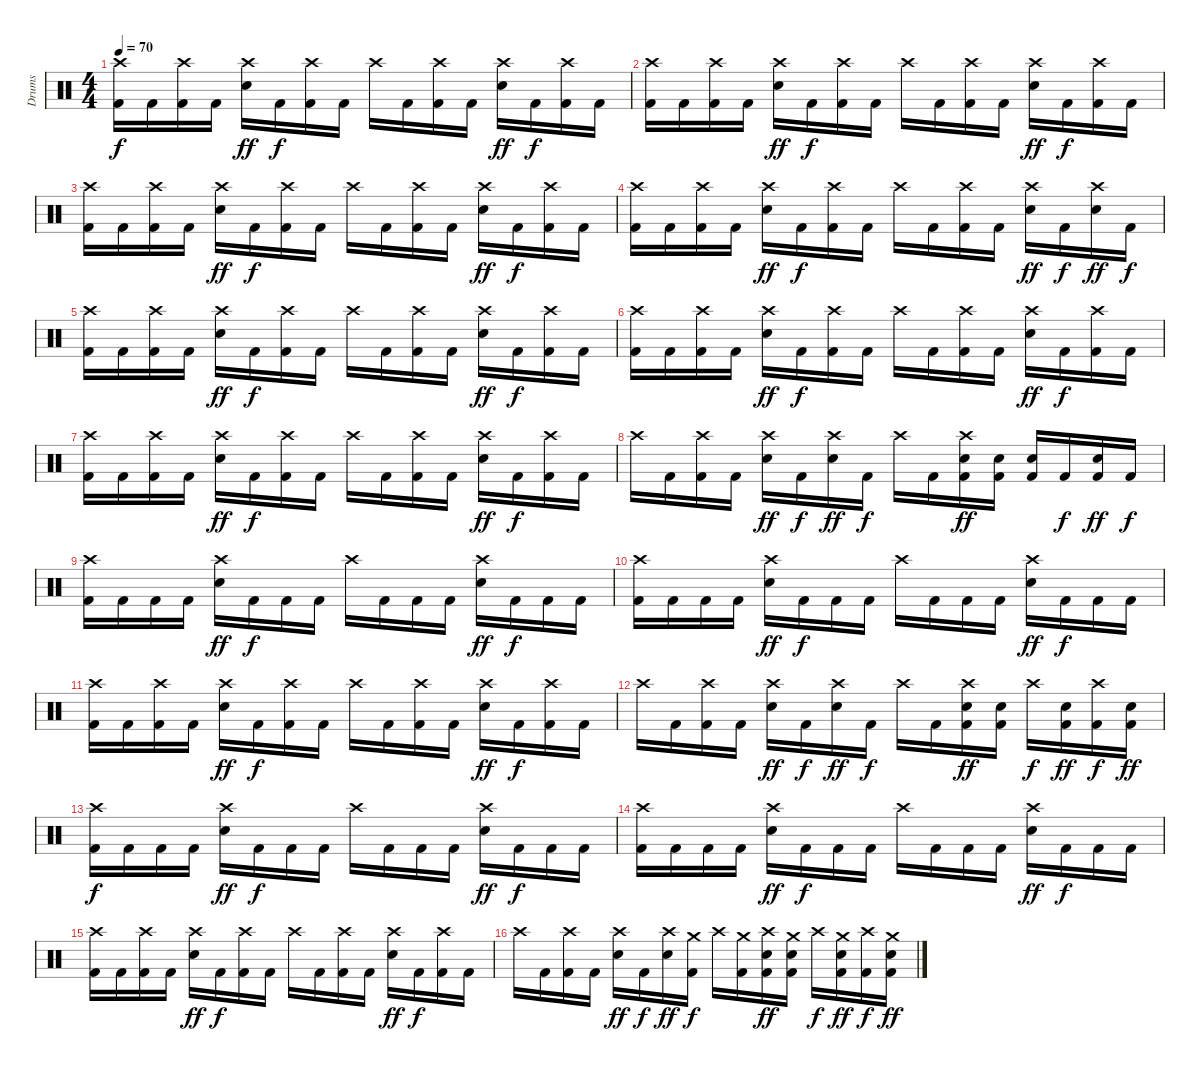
\track ("Drums" "Drums") {instrument percussion}
\staff {score}
\articulation defaults
\ts (4 4)
\tempo 70
\clef neutral
\ks c
("Crash high (hit)" "Kick (hit) 2").16{dy f} "Kick (hit) 2".16 ("Crash high (hit)" "Kick (hit) 2").16 "Kick (hit) 2".16 ("Crash high (hit)" "Electric Snare (hit)").16{dy ff} "Kick (hit) 2".16{dy f} ("Crash high (hit)" "Kick (hit) 2").16 "Kick (hit) 2".16 "Crash high (hit)".16 "Kick (hit) 2".16 ("Crash high (hit)" "Kick (hit) 2").16 "Kick (hit) 2".16 ("Crash high (hit)" "Electric Snare (hit)").16{dy ff} "Kick (hit) 2".16{dy f} ("Crash high (hit)" "Kick (hit) 2").16 "Kick (hit) 2".16 |
("Crash high (hit)" "Kick (hit) 2").16 "Kick (hit) 2".16 ("Crash high (hit)" "Kick (hit) 2").16 "Kick (hit) 2".16 ("Crash high (hit)" "Electric Snare (hit)").16{dy ff} "Kick (hit) 2".16{dy f} ("Crash high (hit)" "Kick (hit) 2").16 "Kick (hit) 2".16 "Crash high (hit)".16 "Kick (hit) 2".16 ("Crash high (hit)" "Kick (hit) 2").16 "Kick (hit) 2".16 ("Crash high (hit)" "Electric Snare (hit)").16{dy ff} "Kick (hit) 2".16{dy f} ("Crash high (hit)" "Kick (hit) 2").16 "Kick (hit) 2".16 |
("Crash high (hit)" "Kick (hit) 2").16 "Kick (hit) 2".16 ("Crash high (hit)" "Kick (hit) 2").16 "Kick (hit) 2".16 ("Crash high (hit)" "Electric Snare (hit)").16{dy ff} "Kick (hit) 2".16{dy f} ("Crash high (hit)" "Kick (hit) 2").16 "Kick (hit) 2".16 "Crash high (hit)".16 "Kick (hit) 2".16 ("Crash high (hit)" "Kick (hit) 2").16 "Kick (hit) 2".16 ("Crash high (hit)" "Electric Snare (hit)").16{dy ff} "Kick (hit) 2".16{dy f} ("Crash high (hit)" "Kick (hit) 2").16 "Kick (hit) 2".16 |
("Crash high (hit)" "Kick (hit) 2").16 "Kick (hit) 2".16 ("Crash high (hit)" "Kick (hit) 2").16 "Kick (hit) 2".16 ("Crash high (hit)" "Electric Snare (hit)").16{dy ff} "Kick (hit) 2".16{dy f} ("Crash high (hit)" "Kick (hit) 2").16 "Kick (hit) 2".16 "Crash high (hit)".16 "Kick (hit) 2".16 ("Crash high (hit)" "Kick (hit) 2").16 "Kick (hit) 2".16 ("Crash high (hit)" "Electric Snare (hit)").16{dy ff} "Kick (hit) 2".16{dy f} ("Crash high (hit)" "Electric Snare (hit)").16{dy ff} "Kick (hit) 2".16{dy f} |
("Crash high (hit)" "Kick (hit) 2").16 "Kick (hit) 2".16 ("Crash high (hit)" "Kick (hit) 2").16 "Kick (hit) 2".16 ("Crash high (hit)" "Electric Snare (hit)").16{dy ff} "Kick (hit) 2".16{dy f} ("Crash high (hit)" "Kick (hit) 2").16 "Kick (hit) 2".16 "Crash high (hit)".16 "Kick (hit) 2".16 ("Crash high (hit)" "Kick (hit) 2").16 "Kick (hit) 2".16 ("Crash high (hit)" "Electric Snare (hit)").16{dy ff} "Kick (hit) 2".16{dy f} ("Crash high (hit)" "Kick (hit) 2").16 "Kick (hit) 2".16 |
("Crash high (hit)" "Kick (hit) 2").16 "Kick (hit) 2".16 ("Crash high (hit)" "Kick (hit) 2").16 "Kick (hit) 2".16 ("Crash high (hit)" "Electric Snare (hit)").16{dy ff} "Kick (hit) 2".16{dy f} ("Crash high (hit)" "Kick (hit) 2").16 "Kick (hit) 2".16 "Crash high (hit)".16 "Kick (hit) 2".16 ("Crash high (hit)" "Kick (hit) 2").16 "Kick (hit) 2".16 ("Crash high (hit)" "Electric Snare (hit)").16{dy ff} "Kick (hit) 2".16{dy f} ("Crash high (hit)" "Kick (hit) 2").16 "Kick (hit) 2".16 |
("Crash high (hit)" "Kick (hit) 2").16 "Kick (hit) 2".16 ("Crash high (hit)" "Kick (hit) 2").16 "Kick (hit) 2".16 ("Crash high (hit)" "Electric Snare (hit)").16{dy ff} "Kick (hit) 2".16{dy f} ("Crash high (hit)" "Kick (hit) 2").16 "Kick (hit) 2".16 "Crash high (hit)".16 "Kick (hit) 2".16 ("Crash high (hit)" "Kick (hit) 2").16 "Kick (hit) 2".16 ("Crash high (hit)" "Electric Snare (hit)").16{dy ff} "Kick (hit) 2".16{dy f} ("Crash high (hit)" "Kick (hit) 2").16 "Kick (hit) 2".16 |
"Crash high (hit)".16 "Kick (hit) 2".16 ("Crash high (hit)" "Kick (hit) 2").16 "Kick (hit) 2".16 ("Crash high (hit)" "Electric Snare (hit)").16{dy ff} "Kick (hit) 2".16{dy f} ("Crash high (hit)" "Electric Snare (hit)").16{dy ff} "Kick (hit) 2".16{dy f} "Crash high (hit)".16 "Kick (hit) 2".16 ("Crash high (hit)" "Electric Snare (hit)" "Kick (hit) 2").16{dy ff} ("Electric Snare (hit)" "Kick (hit) 2").16 ("Electric Snare (hit)" "Kick (hit) 2").16 "Kick (hit) 2".16{dy f} ("Electric Snare (hit)" "Kick (hit) 2").16{dy ff} "Kick (hit) 2".16{dy f} |
("Crash high (hit)" "Kick (hit) 2").16 "Kick (hit) 2".16 "Kick (hit) 2".16 "Kick (hit) 2".16 ("Crash high (hit)" "Electric Snare (hit)").16{dy ff} "Kick (hit) 2".16{dy f} "Kick (hit) 2".16 "Kick (hit) 2".16 "Crash high (hit)".16 "Kick (hit) 2".16 "Kick (hit) 2".16 "Kick (hit) 2".16 ("Crash high (hit)" "Electric Snare (hit)").16{dy ff} "Kick (hit) 2".16{dy f} "Kick (hit) 2".16 "Kick (hit) 2".16 |
("Crash high (hit)" "Kick (hit) 2").16 "Kick (hit) 2".16 "Kick (hit) 2".16 "Kick (hit) 2".16 ("Crash high (hit)" "Electric Snare (hit)").16{dy ff} "Kick (hit) 2".16{dy f} "Kick (hit) 2".16 "Kick (hit) 2".16 "Crash high (hit)".16 "Kick (hit) 2".16 "Kick (hit) 2".16 "Kick (hit) 2".16 ("Crash high (hit)" "Electric Snare (hit)").16{dy ff} "Kick (hit) 2".16{dy f} "Kick (hit) 2".16 "Kick (hit) 2".16 |
("Crash high (hit)" "Kick (hit) 2").16 "Kick (hit) 2".16 ("Crash high (hit)" "Kick (hit) 2").16 "Kick (hit) 2".16 ("Crash high (hit)" "Electric Snare (hit)").16{dy ff} "Kick (hit) 2".16{dy f} ("Crash high (hit)" "Kick (hit) 2").16 "Kick (hit) 2".16 "Crash high (hit)".16 "Kick (hit) 2".16 ("Crash high (hit)" "Kick (hit) 2").16 "Kick (hit) 2".16 ("Crash high (hit)" "Electric Snare (hit)").16{dy ff} "Kick (hit) 2".16{dy f} ("Crash high (hit)" "Kick (hit) 2").16 "Kick (hit) 2".16 |
"Crash high (hit)".16 "Kick (hit) 2".16 ("Crash high (hit)" "Kick (hit) 2").16 "Kick (hit) 2".16 ("Crash high (hit)" "Electric Snare (hit)").16{dy ff} "Kick (hit) 2".16{dy f} ("Crash high (hit)" "Electric Snare (hit)").16{dy ff} "Kick (hit) 2".16{dy f} "Crash high (hit)".16 "Kick (hit) 2".16 ("Crash high (hit)" "Electric Snare (hit)" "Kick (hit) 2").16{dy ff} ("Electric Snare (hit)" "Kick (hit) 2").16 "Crash high (hit)".16{dy f} ("Electric Snare (hit)" "Kick (hit) 2").16{dy ff} ("Crash high (hit)" "Kick (hit) 2").16{dy f} ("Electric Snare (hit)" "Kick (hit) 2").16{dy ff} |
("Crash high (hit)" "Kick (hit) 2").16{dy f} "Kick (hit) 2".16 "Kick (hit) 2".16 "Kick (hit) 2".16 ("Crash high (hit)" "Electric Snare (hit)").16{dy ff} "Kick (hit) 2".16{dy f} "Kick (hit) 2".16 "Kick (hit) 2".16 "Crash high (hit)".16 "Kick (hit) 2".16 "Kick (hit) 2".16 "Kick (hit) 2".16 ("Crash high (hit)" "Electric Snare (hit)").16{dy ff} "Kick (hit) 2".16{dy f} "Kick (hit) 2".16 "Kick (hit) 2".16 |
("Crash high (hit)" "Kick (hit) 2").16 "Kick (hit) 2".16 "Kick (hit) 2".16 "Kick (hit) 2".16 ("Crash high (hit)" "Electric Snare (hit)").16{dy ff} "Kick (hit) 2".16{dy f} "Kick (hit) 2".16 "Kick (hit) 2".16 "Crash high (hit)".16 "Kick (hit) 2".16 "Kick (hit) 2".16 "Kick (hit) 2".16 ("Crash high (hit)" "Electric Snare (hit)").16{dy ff} "Kick (hit) 2".16{dy f} "Kick (hit) 2".16 "Kick (hit) 2".16 |
("Crash high (hit)" "Kick (hit) 2").16 "Kick (hit) 2".16 ("Crash high (hit)" "Kick (hit) 2").16 "Kick (hit) 2".16 ("Crash high (hit)" "Electric Snare (hit)").16{dy ff} "Kick (hit) 2".16{dy f} ("Crash high (hit)" "Kick (hit) 2").16 "Kick (hit) 2".16 "Crash high (hit)".16 "Kick (hit) 2".16 ("Crash high (hit)" "Kick (hit) 2").16 "Kick (hit) 2".16 ("Crash high (hit)" "Electric Snare (hit)").16{dy ff} "Kick (hit) 2".16{dy f} ("Crash high (hit)" "Kick (hit) 2").16 "Kick (hit) 2".16 |
"Crash high (hit)".16 "Kick (hit) 2".16 ("Crash high (hit)" "Kick (hit) 2").16 "Kick (hit) 2".16 ("Crash high (hit)" "Electric Snare (hit)").16{dy ff} "Kick (hit) 2".16{dy f} ("Crash high (hit)" "Electric Snare (hit)").16{dy ff} ("Crash medium (hit)" "Kick (hit) 2").16{dy f} "Crash high (hit)".16 ("Crash medium (hit)" "Kick (hit) 2").16 ("Crash high (hit)" "Electric Snare (hit)" "Kick (hit) 2").16{dy ff} ("Crash medium (hit)" "Electric Snare (hit)" "Kick (hit) 2").16 "Crash high (hit)".16{dy f} ("Crash medium (hit)" "Electric Snare (hit)" "Kick (hit) 2").16{dy ff} ("Crash high (hit)" "Kick (hit) 2").16{dy f} ("Crash medium (hit)" "Electric Snare (hit)" "Kick (hit) 2").16{dy ff}
